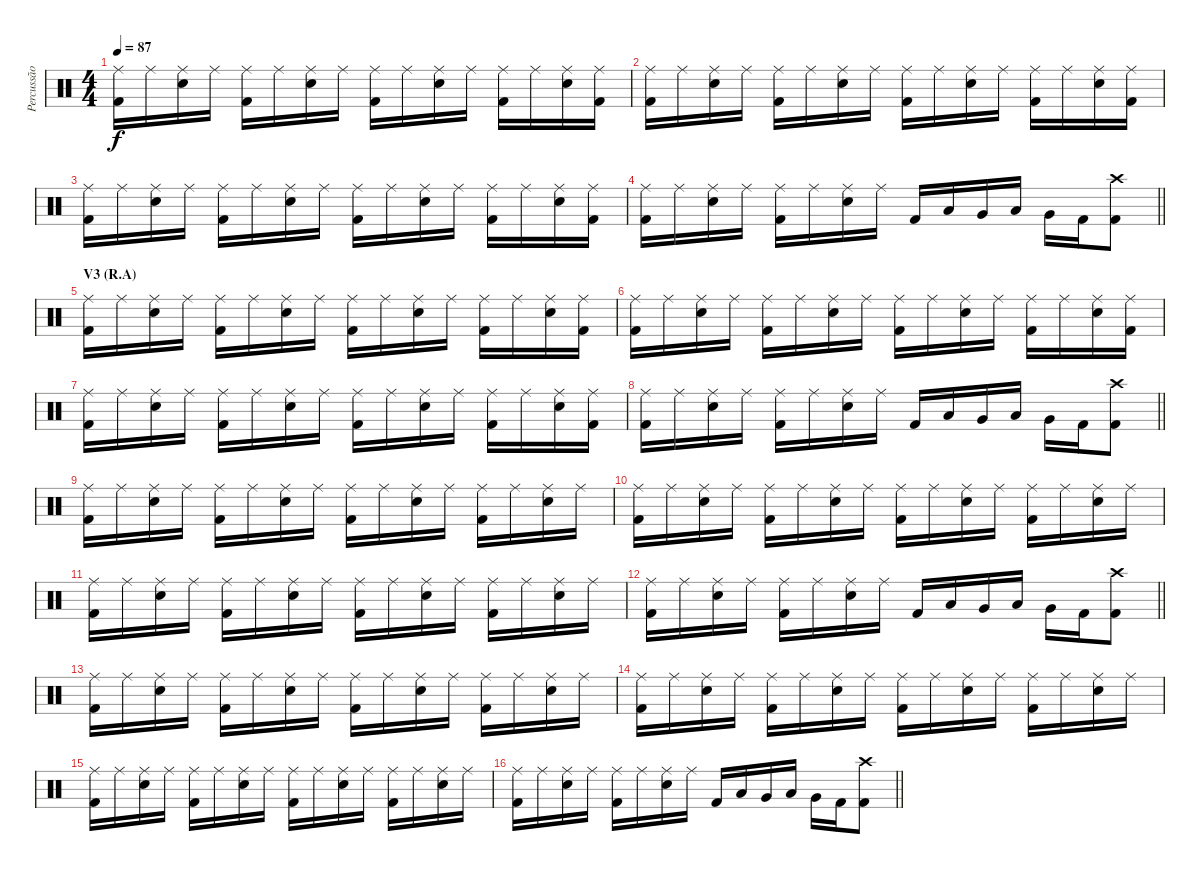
\track ("Percussão" "Percussão") {instrument percussion}
\staff {score}
\articulation defaults
\ts (4 4)
\tempo 87
\clef neutral
\ks c
("Ride (middle)" "Kick (hit) 2").16{dy f} "Ride (middle)".16 ("Ride (middle)" "Electric Snare (hit)").16 "Ride (middle)".16 ("Ride (middle)" "Kick (hit) 2").16 "Ride (middle)".16 ("Ride (middle)" "Electric Snare (hit)").16 "Ride (middle)".16 ("Ride (middle)" "Kick (hit) 2").16 "Ride (middle)".16 ("Ride (middle)" "Electric Snare (hit)").16 "Ride (middle)".16 ("Ride (middle)" "Kick (hit) 2").16 "Ride (middle)".16 ("Ride (middle)" "Electric Snare (hit)").16 ("Ride (middle)" "Kick (hit) 2").16 |
("Ride (middle)" "Kick (hit) 2").16 "Ride (middle)".16 ("Ride (middle)" "Electric Snare (hit)").16 "Ride (middle)".16 ("Ride (middle)" "Kick (hit) 2").16 "Ride (middle)".16 ("Ride (middle)" "Electric Snare (hit)").16 "Ride (middle)".16 ("Ride (middle)" "Kick (hit) 2").16 "Ride (middle)".16 ("Ride (middle)" "Electric Snare (hit)").16 "Ride (middle)".16 ("Ride (middle)" "Kick (hit) 2").16 "Ride (middle)".16 ("Ride (middle)" "Electric Snare (hit)").16 ("Ride (middle)" "Kick (hit) 2").16 |
("Ride (middle)" "Kick (hit) 2").16 "Ride (middle)".16 ("Ride (middle)" "Electric Snare (hit)").16 "Ride (middle)".16 ("Ride (middle)" "Kick (hit) 2").16 "Ride (middle)".16 ("Ride (middle)" "Electric Snare (hit)").16 "Ride (middle)".16 ("Ride (middle)" "Kick (hit) 2").16 "Ride (middle)".16 ("Ride (middle)" "Electric Snare (hit)").16 "Ride (middle)".16 ("Ride (middle)" "Kick (hit) 2").16 "Ride (middle)".16 ("Ride (middle)" "Electric Snare (hit)").16 ("Ride (middle)" "Kick (hit) 2").16 |
\barLineRight lightlight
("Ride (middle)" "Kick (hit) 2").16 "Ride (middle)".16 ("Ride (middle)" "Electric Snare (hit)").16 "Ride (middle)".16 ("Ride (middle)" "Kick (hit) 2").16 "Ride (middle)".16 ("Ride (middle)" "Electric Snare (hit)").16 "Ride (middle)".16 "Kick (hit) 2".16 "Low Tom (hit)".16 "Very Low Tom (hit)".16 "Low Floor Tom (hit)".16 "Very Low Tom (hit)".16 "Kick (hit) 2".16 ("Crash high (hit)" "Kick (hit) 2").8 |
\section ("" "V3 (R.A)")
("Ride (middle)" "Kick (hit) 2").16 "Ride (middle)".16 ("Ride (middle)" "Electric Snare (hit)").16 "Ride (middle)".16 ("Ride (middle)" "Kick (hit) 2").16 "Ride (middle)".16 ("Ride (middle)" "Electric Snare (hit)").16 "Ride (middle)".16 ("Ride (middle)" "Kick (hit) 2").16 "Ride (middle)".16 ("Ride (middle)" "Electric Snare (hit)").16 "Ride (middle)".16 ("Ride (middle)" "Kick (hit) 2").16 "Ride (middle)".16 ("Ride (middle)" "Electric Snare (hit)").16 ("Ride (middle)" "Kick (hit) 2").16 |
("Ride (middle)" "Kick (hit) 2").16 "Ride (middle)".16 ("Ride (middle)" "Electric Snare (hit)").16 "Ride (middle)".16 ("Ride (middle)" "Kick (hit) 2").16 "Ride (middle)".16 ("Ride (middle)" "Electric Snare (hit)").16 "Ride (middle)".16 ("Ride (middle)" "Kick (hit) 2").16 "Ride (middle)".16 ("Ride (middle)" "Electric Snare (hit)").16 "Ride (middle)".16 ("Ride (middle)" "Kick (hit) 2").16 "Ride (middle)".16 ("Ride (middle)" "Electric Snare (hit)").16 ("Ride (middle)" "Kick (hit) 2").16 |
("Ride (middle)" "Kick (hit) 2").16 "Ride (middle)".16 ("Ride (middle)" "Electric Snare (hit)").16 "Ride (middle)".16 ("Ride (middle)" "Kick (hit) 2").16 "Ride (middle)".16 ("Ride (middle)" "Electric Snare (hit)").16 "Ride (middle)".16 ("Ride (middle)" "Kick (hit) 2").16 "Ride (middle)".16 ("Ride (middle)" "Electric Snare (hit)").16 "Ride (middle)".16 ("Ride (middle)" "Kick (hit) 2").16 "Ride (middle)".16 ("Ride (middle)" "Electric Snare (hit)").16 ("Ride (middle)" "Kick (hit) 2").16 |
\barLineRight lightlight
("Ride (middle)" "Kick (hit) 2").16 "Ride (middle)".16 ("Ride (middle)" "Electric Snare (hit)").16 "Ride (middle)".16 ("Ride (middle)" "Kick (hit) 2").16 "Ride (middle)".16 ("Ride (middle)" "Electric Snare (hit)").16 "Ride (middle)".16 "Kick (hit) 2".16 "Low Tom (hit)".16 "Very Low Tom (hit)".16 "Low Floor Tom (hit)".16 "Very Low Tom (hit)".16 "Kick (hit) 2".16 ("Crash high (hit)" "Kick (hit) 2").8 |
("Ride (middle)" "Kick (hit) 2").16 "Ride (middle)".16 ("Ride (middle)" "Electric Snare (hit)").16 "Ride (middle)".16 ("Ride (middle)" "Kick (hit) 2").16 "Ride (middle)".16 ("Ride (middle)" "Electric Snare (hit)").16 "Ride (middle)".16 ("Ride (middle)" "Kick (hit) 2").16 "Ride (middle)".16 ("Ride (middle)" "Electric Snare (hit)").16 "Ride (middle)".16 ("Ride (middle)" "Kick (hit) 2").16 "Ride (middle)".16 ("Ride (middle)" "Electric Snare (hit)").16 "Ride (middle)".16 |
("Ride (middle)" "Kick (hit) 2").16 "Ride (middle)".16 ("Ride (middle)" "Electric Snare (hit)").16 "Ride (middle)".16 ("Ride (middle)" "Kick (hit) 2").16 "Ride (middle)".16 ("Ride (middle)" "Electric Snare (hit)").16 "Ride (middle)".16 ("Ride (middle)" "Kick (hit) 2").16 "Ride (middle)".16 ("Ride (middle)" "Electric Snare (hit)").16 "Ride (middle)".16 ("Ride (middle)" "Kick (hit) 2").16 "Ride (middle)".16 ("Ride (middle)" "Electric Snare (hit)").16 "Ride (middle)".16 |
("Ride (middle)" "Kick (hit) 2").16 "Ride (middle)".16 ("Ride (middle)" "Electric Snare (hit)").16 "Ride (middle)".16 ("Ride (middle)" "Kick (hit) 2").16 "Ride (middle)".16 ("Ride (middle)" "Electric Snare (hit)").16 "Ride (middle)".16 ("Ride (middle)" "Kick (hit) 2").16 "Ride (middle)".16 ("Ride (middle)" "Electric Snare (hit)").16 "Ride (middle)".16 ("Ride (middle)" "Kick (hit) 2").16 "Ride (middle)".16 ("Ride (middle)" "Electric Snare (hit)").16 "Ride (middle)".16 |
\barLineRight lightlight
("Ride (middle)" "Kick (hit) 2").16 "Ride (middle)".16 ("Ride (middle)" "Electric Snare (hit)").16 "Ride (middle)".16 ("Ride (middle)" "Kick (hit) 2").16 "Ride (middle)".16 ("Ride (middle)" "Electric Snare (hit)").16 "Ride (middle)".16 "Kick (hit) 2".16 "Low Tom (hit)".16 "Very Low Tom (hit)".16 "Low Floor Tom (hit)".16 "Very Low Tom (hit)".16 "Kick (hit) 2".16 ("Crash high (hit)" "Kick (hit) 2").8 |
("Ride (middle)" "Kick (hit) 2").16 "Ride (middle)".16 ("Ride (middle)" "Electric Snare (hit)").16 "Ride (middle)".16 ("Ride (middle)" "Kick (hit) 2").16 "Ride (middle)".16 ("Ride (middle)" "Electric Snare (hit)").16 "Ride (middle)".16 ("Ride (middle)" "Kick (hit) 2").16 "Ride (middle)".16 ("Ride (middle)" "Electric Snare (hit)").16 "Ride (middle)".16 ("Ride (middle)" "Kick (hit) 2").16 "Ride (middle)".16 ("Ride (middle)" "Electric Snare (hit)").16 "Ride (middle)".16 |
("Ride (middle)" "Kick (hit) 2").16 "Ride (middle)".16 ("Ride (middle)" "Electric Snare (hit)").16 "Ride (middle)".16 ("Ride (middle)" "Kick (hit) 2").16 "Ride (middle)".16 ("Ride (middle)" "Electric Snare (hit)").16 "Ride (middle)".16 ("Ride (middle)" "Kick (hit) 2").16 "Ride (middle)".16 ("Ride (middle)" "Electric Snare (hit)").16 "Ride (middle)".16 ("Ride (middle)" "Kick (hit) 2").16 "Ride (middle)".16 ("Ride (middle)" "Electric Snare (hit)").16 "Ride (middle)".16 |
("Ride (middle)" "Kick (hit) 2").16 "Ride (middle)".16 ("Ride (middle)" "Electric Snare (hit)").16 "Ride (middle)".16 ("Ride (middle)" "Kick (hit) 2").16 "Ride (middle)".16 ("Ride (middle)" "Electric Snare (hit)").16 "Ride (middle)".16 ("Ride (middle)" "Kick (hit) 2").16 "Ride (middle)".16 ("Ride (middle)" "Electric Snare (hit)").16 "Ride (middle)".16 ("Ride (middle)" "Kick (hit) 2").16 "Ride (middle)".16 ("Ride (middle)" "Electric Snare (hit)").16 "Ride (middle)".16 |
\barLineRight lightlight
("Ride (middle)" "Kick (hit) 2").16 "Ride (middle)".16 ("Ride (middle)" "Electric Snare (hit)").16 "Ride (middle)".16 ("Ride (middle)" "Kick (hit) 2").16 "Ride (middle)".16 ("Ride (middle)" "Electric Snare (hit)").16 "Ride (middle)".16 "Kick (hit) 2".16 "Low Tom (hit)".16 "Very Low Tom (hit)".16 "Low Floor Tom (hit)".16 "Very Low Tom (hit)".16 "Kick (hit) 2".16 ("Crash high (hit)" "Kick (hit) 2").8
